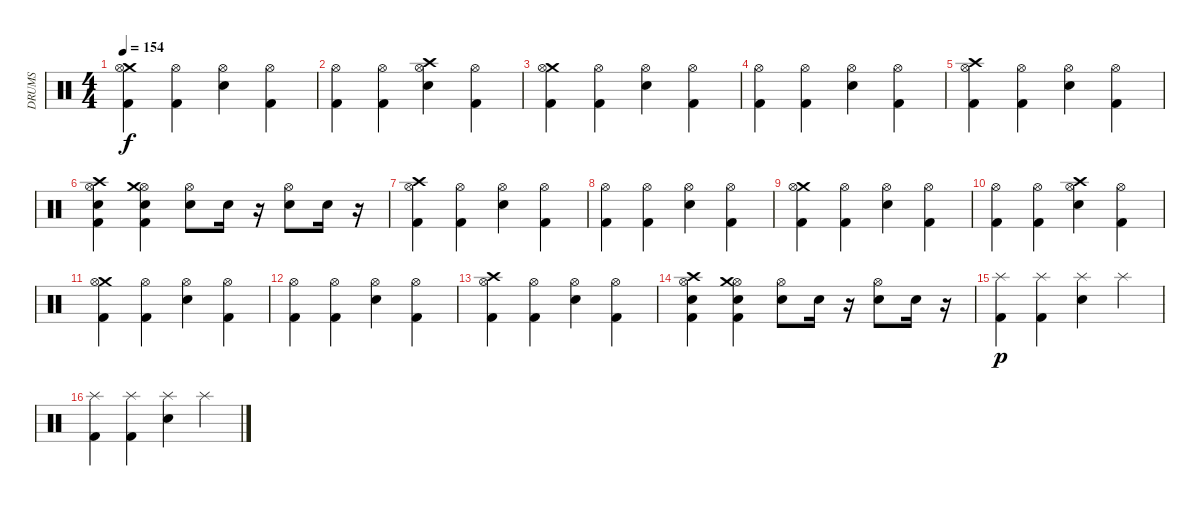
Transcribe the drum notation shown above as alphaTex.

\track ("DRUMS" "DRUMS") {instrument percussion}
\staff {score}
\articulation defaults
\ts (4 4)
\tempo 154
\clef neutral
\ks c
("Crash medium (hit)" "Kick (hit) 2" "Hi-Hat (open)").4{dy f} ("Hi-Hat (open)" "Kick (hit) 2").4 ("Hi-Hat (open)" "Snare (hit) 2").4 ("Hi-Hat (open)" "Kick (hit) 2").4 |
("Hi-Hat (open)" "Kick (hit) 2").4 ("Hi-Hat (open)" "Kick (hit) 2").4 ("Crash high (hit)" "Hi-Hat (open)" "Snare (hit) 2").4 ("Hi-Hat (open)" "Kick (hit) 2").4 |
("Crash medium (hit)" "Hi-Hat (open)" "Kick (hit) 2").4 ("Hi-Hat (open)" "Kick (hit) 2").4 ("Hi-Hat (open)" "Snare (hit) 2").4 ("Hi-Hat (open)" "Kick (hit) 2").4 |
("Hi-Hat (open)" "Kick (hit) 2").4 ("Hi-Hat (open)" "Kick (hit) 2").4 ("Hi-Hat (open)" "Snare (hit) 2").4 ("Hi-Hat (open)" "Kick (hit) 2").4 |
("Crash high (hit)" "Hi-Hat (open)" "Kick (hit) 2").4 ("Hi-Hat (open)" "Kick (hit) 2").4 ("Hi-Hat (open)" "Snare (hit) 2").4 ("Hi-Hat (open)" "Kick (hit) 2").4 |
("Hi-Hat (open)" "Crash high (hit)" "Snare (hit) 2" "Kick (hit) 2").4 ("Hi-Hat (open)" "Crash medium (hit)" "Snare (hit) 2" "Kick (hit) 2").4 ("Hi-Hat (open)" "Snare (hit) 2").8 "Snare (hit) 2".16 r.16 ("Hi-Hat (open)" "Snare (hit) 2").8 "Snare (hit) 2".16 r.16 |
("Crash high (hit)" "Hi-Hat (open)" "Kick (hit) 2").4 ("Hi-Hat (open)" "Kick (hit) 2").4 ("Hi-Hat (open)" "Snare (hit) 2").4 ("Hi-Hat (open)" "Kick (hit) 2").4 |
("Hi-Hat (open)" "Kick (hit) 2").4 ("Hi-Hat (open)" "Kick (hit) 2").4 ("Hi-Hat (open)" "Snare (hit) 2").4 ("Hi-Hat (open)" "Kick (hit) 2").4 |
("Crash medium (hit)" "Kick (hit) 2" "Hi-Hat (open)").4 ("Hi-Hat (open)" "Kick (hit) 2").4 ("Hi-Hat (open)" "Snare (hit) 2").4 ("Hi-Hat (open)" "Kick (hit) 2").4 |
("Hi-Hat (open)" "Kick (hit) 2").4 ("Hi-Hat (open)" "Kick (hit) 2").4 ("Crash high (hit)" "Hi-Hat (open)" "Snare (hit) 2").4 ("Hi-Hat (open)" "Kick (hit) 2").4 |
("Crash medium (hit)" "Hi-Hat (open)" "Kick (hit) 2").4 ("Hi-Hat (open)" "Kick (hit) 2").4 ("Hi-Hat (open)" "Snare (hit) 2").4 ("Hi-Hat (open)" "Kick (hit) 2").4 |
("Hi-Hat (open)" "Kick (hit) 2").4 ("Hi-Hat (open)" "Kick (hit) 2").4 ("Hi-Hat (open)" "Snare (hit) 2").4 ("Hi-Hat (open)" "Kick (hit) 2").4 |
("Crash high (hit)" "Hi-Hat (open)" "Kick (hit) 2").4 ("Hi-Hat (open)" "Kick (hit) 2").4 ("Hi-Hat (open)" "Snare (hit) 2").4 ("Hi-Hat (open)" "Kick (hit) 2").4 |
("Hi-Hat (open)" "Crash high (hit)" "Snare (hit) 2" "Kick (hit) 2").4 ("Hi-Hat (open)" "Crash medium (hit)" "Snare (hit) 2" "Kick (hit) 2").4 ("Hi-Hat (open)" "Snare (hit) 2").8 "Snare (hit) 2".16 r.16 ("Hi-Hat (open)" "Snare (hit) 2").8 "Snare (hit) 2".16 r.16 |
("Splash (hit)" "Kick (hit) 2").4{dy p} ("Splash (hit)" "Kick (hit) 2").4 ("Splash (hit)" "Snare (hit) 2").4 "Splash (hit)".4 |
("Splash (hit)" "Kick (hit) 2").4 ("Splash (hit)" "Kick (hit) 2").4 ("Snare (hit) 2" "Splash (hit)").4 "Splash (hit)".4
